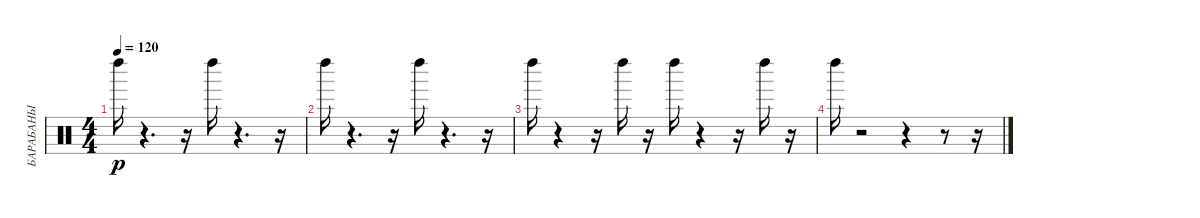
\track ("БАРАБАНЫ" "БАРАБАНЫ") {instrument percussion}
\staff {score}
\articulation defaults
\ts (4 4)
\tempo 120
\clef neutral
\ks c "Left Maraca (hit)".16{dy p}
r.4{d} r.16 "Left Maraca (hit)".16 r.4{d} r.16 |
"Left Maraca (hit)".16 r.4{d} r.16 "Left Maraca (hit)".16 r.4{d} r.16 |
"Left Maraca (hit)".16 r.4 r.16 "Left Maraca (hit)".16 r.16 "Left Maraca (hit)".16 r.4 r.16 "Left Maraca (hit)".16 r.16 |
"Left Maraca (hit)".16 r.2 r.4 r.8 r.16
